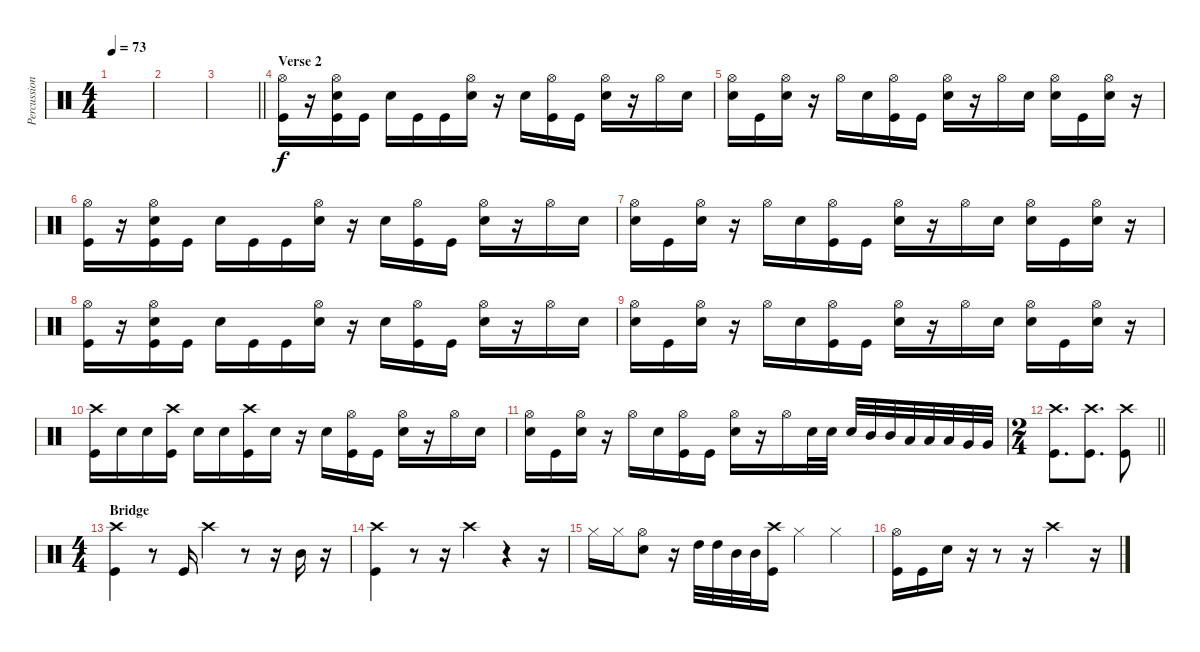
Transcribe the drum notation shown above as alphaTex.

\track ("Percussion" "Percussion") {instrument percussion}
\staff {score}
\articulation defaults
\ts (4 4)
\tempo 73
\clef neutral
\ks c
|
|
\barLineRight lightlight
|
\section ("" "Verse 2")
("Hi-Hat (open)" "Kick (hit)").16 r.16 ("Hi-Hat (open)" "Electric Snare (hit)" "Kick (hit)").16 "Kick (hit)".16 "Electric Snare (hit)".16 "Kick (hit)".16 "Kick (hit)".16 ("Hi-Hat (open)" "Electric Snare (hit)").16 r.16 "Electric Snare (hit)".16 ("Hi-Hat (open)" "Kick (hit)").16 "Kick (hit)".16 ("Hi-Hat (open)" "Electric Snare (hit)").16 r.16 "Hi-Hat (open)".16 "Electric Snare (hit)".16 |
("Hi-Hat (open)" "Electric Snare (hit)").16 "Kick (hit)".16 ("Hi-Hat (open)" "Electric Snare (hit)").16 r.16 "Hi-Hat (open)".16 "Electric Snare (hit)".16 ("Hi-Hat (open)" "Kick (hit)").16 "Kick (hit)".16 ("Hi-Hat (open)" "Electric Snare (hit)").16 r.16 "Hi-Hat (open)".16 "Electric Snare (hit)".16 ("Hi-Hat (open)" "Electric Snare (hit)").16 "Kick (hit)".16 ("Hi-Hat (open)" "Electric Snare (hit)").16 r.16 |
("Hi-Hat (open)" "Kick (hit)").16 r.16 ("Hi-Hat (open)" "Electric Snare (hit)" "Kick (hit)").16 "Kick (hit)".16 "Electric Snare (hit)".16 "Kick (hit)".16 "Kick (hit)".16 ("Hi-Hat (open)" "Electric Snare (hit)").16 r.16 "Electric Snare (hit)".16 ("Hi-Hat (open)" "Kick (hit)").16 "Kick (hit)".16 ("Hi-Hat (open)" "Electric Snare (hit)").16 r.16 "Hi-Hat (open)".16 "Electric Snare (hit)".16 |
("Hi-Hat (open)" "Electric Snare (hit)").16 "Kick (hit)".16 ("Hi-Hat (open)" "Electric Snare (hit)").16 r.16 "Hi-Hat (open)".16 "Electric Snare (hit)".16 ("Hi-Hat (open)" "Kick (hit)").16 "Kick (hit)".16 ("Hi-Hat (open)" "Electric Snare (hit)").16 r.16 "Hi-Hat (open)".16 "Electric Snare (hit)".16 ("Hi-Hat (open)" "Electric Snare (hit)").16 "Kick (hit)".16 ("Hi-Hat (open)" "Electric Snare (hit)").16 r.16 |
("Hi-Hat (open)" "Kick (hit)").16 r.16 ("Hi-Hat (open)" "Electric Snare (hit)" "Kick (hit)").16 "Kick (hit)".16 "Electric Snare (hit)".16 "Kick (hit)".16 "Kick (hit)".16 ("Hi-Hat (open)" "Electric Snare (hit)").16 r.16 "Electric Snare (hit)".16 ("Hi-Hat (open)" "Kick (hit)").16 "Kick (hit)".16 ("Hi-Hat (open)" "Electric Snare (hit)").16 r.16 "Hi-Hat (open)".16 "Electric Snare (hit)".16 |
("Hi-Hat (open)" "Electric Snare (hit)").16 "Kick (hit)".16 ("Hi-Hat (open)" "Electric Snare (hit)").16 r.16 "Hi-Hat (open)".16 "Electric Snare (hit)".16 ("Hi-Hat (open)" "Kick (hit)").16 "Kick (hit)".16 ("Hi-Hat (open)" "Electric Snare (hit)").16 r.16 "Hi-Hat (open)".16 "Electric Snare (hit)".16 ("Hi-Hat (open)" "Electric Snare (hit)").16 "Kick (hit)".16 ("Hi-Hat (open)" "Electric Snare (hit)").16 r.16 |
("Crash high (hit)" "Kick (hit)").16 "Electric Snare (hit)".16 "Electric Snare (hit)".16 ("Crash high (hit)" "Kick (hit)").16 "Electric Snare (hit)".16 "Electric Snare (hit)".16 ("Crash high (hit)" "Kick (hit)").16 "Electric Snare (hit)".16 r.16 "Electric Snare (hit)".16 ("Hi-Hat (open)" "Kick (hit)").16 "Kick (hit)".16 ("Hi-Hat (open)" "Electric Snare (hit)").16 r.16 "Hi-Hat (open)".16 "Electric Snare (hit)".16 |
("Hi-Hat (open)" "Electric Snare (hit)").16 "Kick (hit)".16 ("Hi-Hat (open)" "Electric Snare (hit)").16 r.16 "Hi-Hat (open)".16 "Electric Snare (hit)".16 ("Hi-Hat (open)" "Kick (hit)").16 "Kick (hit)".16 ("Hi-Hat (open)" "Electric Snare (hit)").16 r.16 "Hi-Hat (open)".16 "Electric Snare (hit)".32 "Electric Snare (hit)".32 "Electric Snare (hit)".32 "Mid Tom (hit)".32 "Mid Tom (hit)".32 "Low Tom (hit)".32 "Low Tom (hit)".32 "Low Tom (hit)".32 "Very Low Tom (hit)".32 "Very Low Tom (hit)".32 |
\ts (2 4)
\barLineRight lightlight
("Crash high (hit)" "Kick (hit)").8{d} ("Crash high (hit)" "Kick (hit)").8{d} ("Crash high (hit)" "Kick (hit)").8 |
\ts (4 4)
\section ("" "Bridge")
("Crash high (hit)" "Kick (hit)").4 r.8 "Kick (hit)".16 "Crash high (hit)".4 r.8 r.16 "Mid Tom (hit)".16 r.16 |
("Crash high (hit)" "Kick (hit)").4 r.8 r.16 "Crash high (hit)".4 r.4 r.16 |
"Hi-Hat (closed)".16 "Hi-Hat (closed)".16 ("Hi-Hat (open)" "Electric Snare (hit)").8 r.16 "High Tom (hit)".32 "High Tom (hit)".32 "Mid Tom (hit)".32 "Mid Tom (hit)".32 ("Crash high (hit)" "Kick (hit)").16 "Hi-Hat (closed)".4 "Hi-Hat (closed)".4 |
("Hi-Hat (open)" "Kick (hit)").16 "Kick (hit)".16 "Electric Snare (hit)".16 r.16 r.8 r.16 "Crash high (hit)".2 r.16
